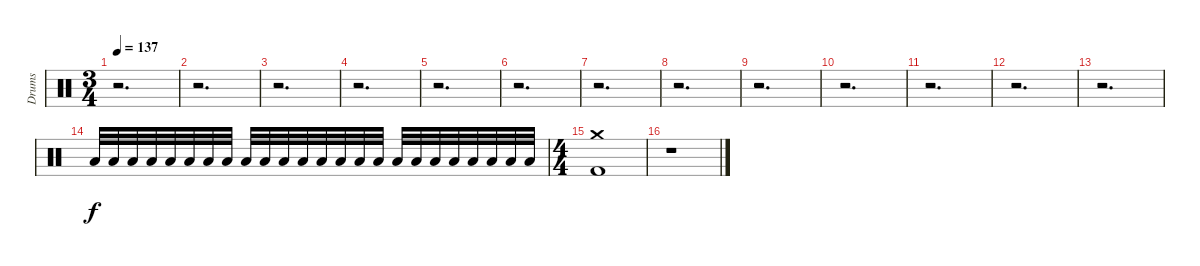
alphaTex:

\track ("Drums" "Drums") {instrument percussion}
\staff {score}
\articulation defaults
\ts (3 4)
\tempo 137
\clef neutral
\ks c
r.2{d dy f} |
r.2{d} |
r.2{d} |
r.2{d} |
r.2{d} |
r.2{d} |
r.2{d} |
r.2{d} |
r.2{d} |
r.2{d} |
r.2{d} |
r.2{d} |
r.2{d} |
"Low Tom (hit)".32{volume 0} "Low Tom (hit)".32{volume 1} "Low Tom (hit)".32{volume 1} "Low Tom (hit)".32{volume 2} "Low Tom (hit)".32{volume 3} "Low Tom (hit)".32{volume 3} "Low Tom (hit)".32{volume 4} "Low Tom (hit)".32{volume 4} "Low Tom (hit)".32{volume 5} "Low Tom (hit)".32{volume 6} "Low Tom (hit)".32{volume 6} "Low Tom (hit)".32{volume 7} "Low Tom (hit)".32{volume 8} "Low Tom (hit)".32{volume 8} "Low Tom (hit)".32{volume 9} "Low Tom (hit)".32{volume 10} "Low Tom (hit)".32{volume 10} "Low Tom (hit)".32{volume 11} "Low Tom (hit)".32{volume 12} "Low Tom (hit)".32{volume 12} "Low Tom (hit)".32{volume 13} "Low Tom (hit)".32{volume 14} "Low Tom (hit)".32{volume 14} "Low Tom (hit)".32{volume 15} |
\ts (4 4)
("Crash medium (hit)" "Kick (hit) 2").1{volume 16} |
r.1
